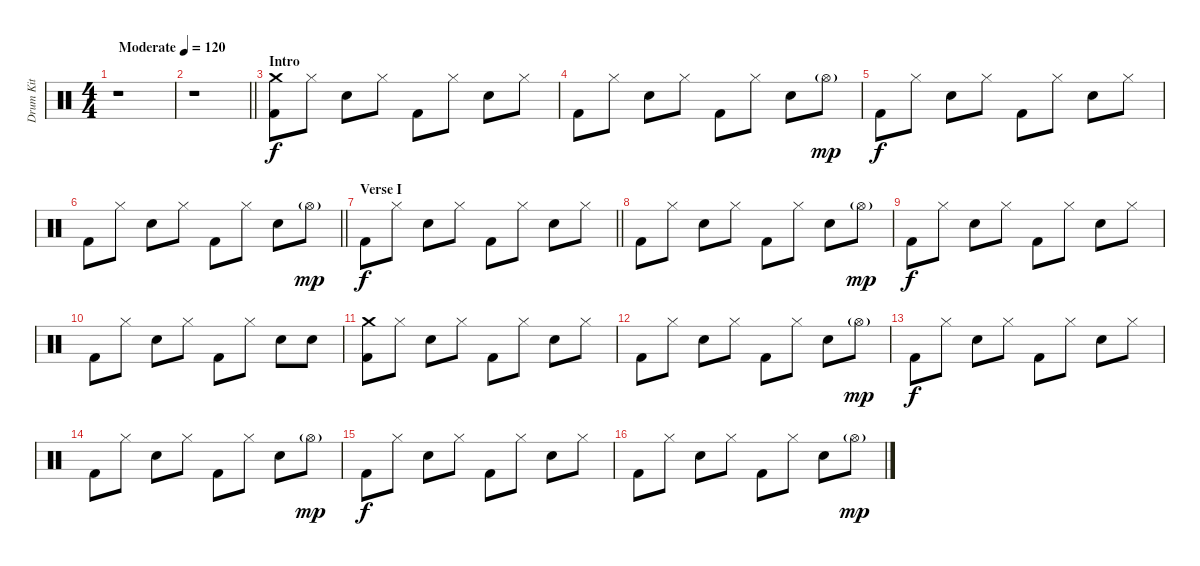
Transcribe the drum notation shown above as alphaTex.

\track ("Drum Kit" "Drum Kit") {instrument percussion}
\staff {score}
\articulation defaults
\ts (4 4)
\tempo (120 "Moderate")
\clef neutral
\ks c
r.1{dy f} |
\barLineRight lightlight
r.1 |
\section ("" "Intro")
("Crash medium (hit)" "Kick (hit) 2").8 "Hi-Hat (closed)".8 "Electric Snare (hit)".8 "Hi-Hat (closed)".8 "Kick (hit) 2".8 "Hi-Hat (closed)".8 "Electric Snare (hit)".8 "Hi-Hat (closed)".8 |
"Kick (hit) 2".8 "Hi-Hat (closed)".8 "Electric Snare (hit)".8 "Hi-Hat (closed)".8 "Kick (hit) 2".8 "Hi-Hat (closed)".8 "Electric Snare (hit)".8 "Hi-Hat (open)"{g}.8{dy mp} |
"Kick (hit) 2".8{dy f} "Hi-Hat (closed)".8 "Electric Snare (hit)".8 "Hi-Hat (closed)".8 "Kick (hit) 2".8 "Hi-Hat (closed)".8 "Electric Snare (hit)".8 "Hi-Hat (closed)".8 |
\barLineRight lightlight "Kick (hit) 2".8 "Hi-Hat (closed)".8 "Electric Snare (hit)".8 "Hi-Hat (closed)".8 "Kick (hit) 2".8 "Hi-Hat (closed)".8 "Electric Snare (hit)".8 "Hi-Hat (open)"{g}.8{dy mp}
|
\section ("" "Verse I")
\barLineRight lightlight "Kick (hit) 2".8{dy f} "Hi-Hat (closed)".8 "Electric Snare (hit)".8 "Hi-Hat (closed)".8 "Kick (hit) 2".8 "Hi-Hat (closed)".8 "Electric Snare (hit)".8 "Hi-Hat (closed)".8
|
\section ("" "")
"Kick (hit) 2".8 "Hi-Hat (closed)".8 "Electric Snare (hit)".8 "Hi-Hat (closed)".8 "Kick (hit) 2".8 "Hi-Hat (closed)".8 "Electric Snare (hit)".8 "Hi-Hat (open)"{g}.8{dy mp} |
"Kick (hit) 2".8{dy f} "Hi-Hat (closed)".8 "Electric Snare (hit)".8 "Hi-Hat (closed)".8 "Kick (hit) 2".8 "Hi-Hat (closed)".8 "Electric Snare (hit)".8 "Hi-Hat (closed)".8 |
"Kick (hit) 2".8 "Hi-Hat (closed)".8 "Electric Snare (hit)".8 "Hi-Hat (closed)".8 "Kick (hit) 2".8 "Hi-Hat (closed)".8 "Electric Snare (hit)".8 "Electric Snare (hit)".8 |
("Crash medium (hit)" "Kick (hit) 2").8 "Hi-Hat (closed)".8 "Electric Snare (hit)".8 "Hi-Hat (closed)".8 "Kick (hit) 2".8 "Hi-Hat (closed)".8 "Electric Snare (hit)".8 "Hi-Hat (closed)".8 |
"Kick (hit) 2".8 "Hi-Hat (closed)".8 "Electric Snare (hit)".8 "Hi-Hat (closed)".8 "Kick (hit) 2".8 "Hi-Hat (closed)".8 "Electric Snare (hit)".8 "Hi-Hat (open)"{g}.8{dy mp} |
"Kick (hit) 2".8{dy f} "Hi-Hat (closed)".8 "Electric Snare (hit)".8 "Hi-Hat (closed)".8 "Kick (hit) 2".8 "Hi-Hat (closed)".8 "Electric Snare (hit)".8 "Hi-Hat (closed)".8 |
"Kick (hit) 2".8 "Hi-Hat (closed)".8 "Electric Snare (hit)".8 "Hi-Hat (closed)".8 "Kick (hit) 2".8 "Hi-Hat (closed)".8 "Electric Snare (hit)".8 "Hi-Hat (open)"{g}.8{dy mp} |
"Kick (hit) 2".8{dy f} "Hi-Hat (closed)".8 "Electric Snare (hit)".8 "Hi-Hat (closed)".8 "Kick (hit) 2".8 "Hi-Hat (closed)".8 "Electric Snare (hit)".8 "Hi-Hat (closed)".8 |
"Kick (hit) 2".8 "Hi-Hat (closed)".8 "Electric Snare (hit)".8 "Hi-Hat (closed)".8 "Kick (hit) 2".8 "Hi-Hat (closed)".8 "Electric Snare (hit)".8 "Hi-Hat (open)"{g}.8{dy mp}
